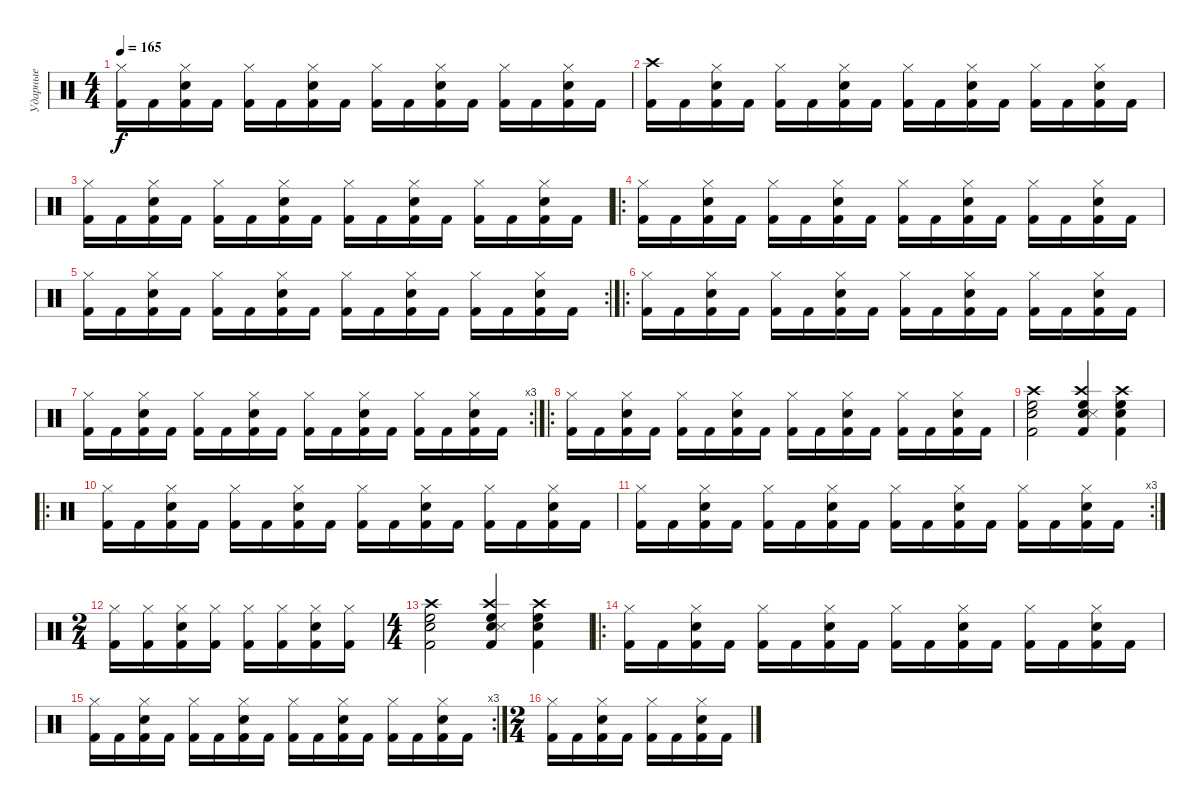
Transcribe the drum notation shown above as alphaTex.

\track ("Ударные" "Ударные") {instrument percussion}
\staff
\articulation defaults
\ts (4 4)
\tempo 165
\clef neutral
\ks c
("Kick (hit) 2" "Hi-Hat (closed)").16{dy f} "Kick (hit) 2".16 ("Kick (hit) 2" "Snare (hit) 2" "Hi-Hat (closed)").16 "Kick (hit) 2".16 ("Kick (hit) 2" "Hi-Hat (closed)").16 "Kick (hit) 2".16 ("Kick (hit) 2" "Snare (hit) 2" "Hi-Hat (closed)").16 "Kick (hit) 2".16 ("Kick (hit) 2" "Hi-Hat (closed)").16 "Kick (hit) 2".16 ("Kick (hit) 2" "Snare (hit) 2" "Hi-Hat (closed)").16 "Kick (hit) 2".16 ("Kick (hit) 2" "Hi-Hat (closed)").16 "Kick (hit) 2".16 ("Kick (hit) 2" "Snare (hit) 2" "Hi-Hat (closed)").16 "Kick (hit) 2".16 |
("Kick (hit) 2" "Crash high (hit)").16 "Kick (hit) 2".16 ("Kick (hit) 2" "Snare (hit) 2" "Hi-Hat (closed)").16 "Kick (hit) 2".16 ("Kick (hit) 2" "Hi-Hat (closed)").16 "Kick (hit) 2".16 ("Kick (hit) 2" "Snare (hit) 2" "Hi-Hat (closed)").16 "Kick (hit) 2".16 ("Kick (hit) 2" "Hi-Hat (closed)").16 "Kick (hit) 2".16 ("Kick (hit) 2" "Snare (hit) 2" "Hi-Hat (closed)").16 "Kick (hit) 2".16 ("Kick (hit) 2" "Hi-Hat (closed)").16 "Kick (hit) 2".16 ("Kick (hit) 2" "Snare (hit) 2" "Hi-Hat (closed)").16 "Kick (hit) 2".16 |
("Kick (hit) 2" "Hi-Hat (closed)").16 "Kick (hit) 2".16 ("Kick (hit) 2" "Snare (hit) 2" "Hi-Hat (closed)").16 "Kick (hit) 2".16 ("Kick (hit) 2" "Hi-Hat (closed)").16 "Kick (hit) 2".16 ("Kick (hit) 2" "Snare (hit) 2" "Hi-Hat (closed)").16 "Kick (hit) 2".16 ("Kick (hit) 2" "Hi-Hat (closed)").16 "Kick (hit) 2".16 ("Kick (hit) 2" "Snare (hit) 2" "Hi-Hat (closed)").16 "Kick (hit) 2".16 ("Kick (hit) 2" "Hi-Hat (closed)").16 "Kick (hit) 2".16 ("Kick (hit) 2" "Snare (hit) 2" "Hi-Hat (closed)").16 "Kick (hit) 2".16 |
\ro
("Kick (hit) 2" "Hi-Hat (closed)").16 "Kick (hit) 2".16 ("Kick (hit) 2" "Snare (hit) 2" "Hi-Hat (closed)").16 "Kick (hit) 2".16 ("Kick (hit) 2" "Hi-Hat (closed)").16 "Kick (hit) 2".16 ("Kick (hit) 2" "Snare (hit) 2" "Hi-Hat (closed)").16 "Kick (hit) 2".16 ("Kick (hit) 2" "Hi-Hat (closed)").16 "Kick (hit) 2".16 ("Kick (hit) 2" "Snare (hit) 2" "Hi-Hat (closed)").16 "Kick (hit) 2".16 ("Kick (hit) 2" "Hi-Hat (closed)").16 "Kick (hit) 2".16 ("Kick (hit) 2" "Snare (hit) 2" "Hi-Hat (closed)").16 "Kick (hit) 2".16 |
\rc 2
("Kick (hit) 2" "Hi-Hat (closed)").16 "Kick (hit) 2".16 ("Kick (hit) 2" "Snare (hit) 2" "Hi-Hat (closed)").16 "Kick (hit) 2".16 ("Kick (hit) 2" "Hi-Hat (closed)").16 "Kick (hit) 2".16 ("Kick (hit) 2" "Snare (hit) 2" "Hi-Hat (closed)").16 "Kick (hit) 2".16 ("Kick (hit) 2" "Hi-Hat (closed)").16 "Kick (hit) 2".16 ("Kick (hit) 2" "Snare (hit) 2" "Hi-Hat (closed)").16 "Kick (hit) 2".16 ("Kick (hit) 2" "Hi-Hat (closed)").16 "Kick (hit) 2".16 ("Kick (hit) 2" "Snare (hit) 2" "Hi-Hat (closed)").16 "Kick (hit) 2".16 |
\ro
("Kick (hit) 2" "Hi-Hat (closed)").16 "Kick (hit) 2".16 ("Kick (hit) 2" "Snare (hit) 2" "Hi-Hat (closed)").16 "Kick (hit) 2".16 ("Kick (hit) 2" "Hi-Hat (closed)").16 "Kick (hit) 2".16 ("Kick (hit) 2" "Snare (hit) 2" "Hi-Hat (closed)").16 "Kick (hit) 2".16 ("Kick (hit) 2" "Hi-Hat (closed)").16 "Kick (hit) 2".16 ("Kick (hit) 2" "Snare (hit) 2" "Hi-Hat (closed)").16 "Kick (hit) 2".16 ("Kick (hit) 2" "Hi-Hat (closed)").16 "Kick (hit) 2".16 ("Kick (hit) 2" "Snare (hit) 2" "Hi-Hat (closed)").16 "Kick (hit) 2".16 |
\rc 3
("Kick (hit) 2" "Hi-Hat (closed)").16 "Kick (hit) 2".16 ("Kick (hit) 2" "Snare (hit) 2" "Hi-Hat (closed)").16 "Kick (hit) 2".16 ("Kick (hit) 2" "Hi-Hat (closed)").16 "Kick (hit) 2".16 ("Kick (hit) 2" "Snare (hit) 2" "Hi-Hat (closed)").16 "Kick (hit) 2".16 ("Kick (hit) 2" "Hi-Hat (closed)").16 "Kick (hit) 2".16 ("Kick (hit) 2" "Snare (hit) 2" "Hi-Hat (closed)").16 "Kick (hit) 2".16 ("Kick (hit) 2" "Hi-Hat (closed)").16 "Kick (hit) 2".16 ("Kick (hit) 2" "Snare (hit) 2" "Hi-Hat (closed)").16 "Kick (hit) 2".16 |
\ro
("Kick (hit) 2" "Hi-Hat (closed)").16 "Kick (hit) 2".16 ("Kick (hit) 2" "Snare (hit) 2" "Hi-Hat (closed)").16 "Kick (hit) 2".16 ("Kick (hit) 2" "Hi-Hat (closed)").16 "Kick (hit) 2".16 ("Kick (hit) 2" "Snare (hit) 2" "Hi-Hat (closed)").16 "Kick (hit) 2".16 ("Kick (hit) 2" "Hi-Hat (closed)").16 "Kick (hit) 2".16 ("Kick (hit) 2" "Snare (hit) 2" "Hi-Hat (closed)").16 "Kick (hit) 2".16 ("Kick (hit) 2" "Hi-Hat (closed)").16 "Kick (hit) 2".16 ("Kick (hit) 2" "Snare (hit) 2" "Hi-Hat (closed)").16 "Kick (hit) 2".16 |
("Crash high (hit)" "High Floor Tom (hit)" "Snare (hit) 2" "Kick (hit) 2").2 ("Kick (hit) 2" "Snare (hit) 2" "Snare (side stick) 3" "High Floor Tom (hit)" "Crash high (hit)").4 ("Crash high (hit)" "High Floor Tom (hit)" "Snare (hit) 2" "Kick (hit) 2").4 |
\ro
("Kick (hit) 2" "Hi-Hat (closed)").16 "Kick (hit) 2".16 ("Kick (hit) 2" "Snare (hit) 2" "Hi-Hat (closed)").16 "Kick (hit) 2".16 ("Kick (hit) 2" "Hi-Hat (closed)").16 "Kick (hit) 2".16 ("Kick (hit) 2" "Snare (hit) 2" "Hi-Hat (closed)").16 "Kick (hit) 2".16 ("Kick (hit) 2" "Hi-Hat (closed)").16 "Kick (hit) 2".16 ("Kick (hit) 2" "Snare (hit) 2" "Hi-Hat (closed)").16 "Kick (hit) 2".16 ("Kick (hit) 2" "Hi-Hat (closed)").16 "Kick (hit) 2".16 ("Kick (hit) 2" "Snare (hit) 2" "Hi-Hat (closed)").16 "Kick (hit) 2".16 |
\rc 3
("Kick (hit) 2" "Hi-Hat (closed)").16 "Kick (hit) 2".16 ("Kick (hit) 2" "Snare (hit) 2" "Hi-Hat (closed)").16 "Kick (hit) 2".16 ("Kick (hit) 2" "Hi-Hat (closed)").16 "Kick (hit) 2".16 ("Kick (hit) 2" "Snare (hit) 2" "Hi-Hat (closed)").16 "Kick (hit) 2".16 ("Kick (hit) 2" "Hi-Hat (closed)").16 "Kick (hit) 2".16 ("Kick (hit) 2" "Snare (hit) 2" "Hi-Hat (closed)").16 "Kick (hit) 2".16 ("Kick (hit) 2" "Hi-Hat (closed)").16 "Kick (hit) 2".16 ("Kick (hit) 2" "Snare (hit) 2" "Hi-Hat (closed)").16 "Kick (hit) 2".16 |
\ts (2 4)
("Kick (hit) 2" "Hi-Hat (closed)").16 ("Kick (hit) 2" "Hi-Hat (closed)").16 ("Kick (hit) 2" "Snare (hit) 2" "Hi-Hat (closed)").16 ("Kick (hit) 2" "Hi-Hat (closed)").16 ("Kick (hit) 2" "Hi-Hat (closed)").16 ("Kick (hit) 2" "Hi-Hat (closed)").16 ("Kick (hit) 2" "Snare (hit) 2" "Hi-Hat (closed)").16 ("Kick (hit) 2" "Hi-Hat (closed)").16 |
\ts (4 4)
("Crash high (hit)" "High Floor Tom (hit)" "Snare (hit) 2" "Kick (hit) 2").2 ("Kick (hit) 2" "Snare (hit) 2" "Snare (side stick) 3" "High Floor Tom (hit)" "Crash high (hit)").4 ("Crash high (hit)" "High Floor Tom (hit)" "Snare (hit) 2" "Kick (hit) 2").4 |
\ro
("Kick (hit) 2" "Hi-Hat (closed)").16 "Kick (hit) 2".16 ("Kick (hit) 2" "Snare (hit) 2" "Hi-Hat (closed)").16 "Kick (hit) 2".16 ("Kick (hit) 2" "Hi-Hat (closed)").16 "Kick (hit) 2".16 ("Kick (hit) 2" "Snare (hit) 2" "Hi-Hat (closed)").16 "Kick (hit) 2".16 ("Kick (hit) 2" "Hi-Hat (closed)").16 "Kick (hit) 2".16 ("Kick (hit) 2" "Snare (hit) 2" "Hi-Hat (closed)").16 "Kick (hit) 2".16 ("Kick (hit) 2" "Hi-Hat (closed)").16 "Kick (hit) 2".16 ("Kick (hit) 2" "Snare (hit) 2" "Hi-Hat (closed)").16 "Kick (hit) 2".16 |
\rc 3
("Kick (hit) 2" "Hi-Hat (closed)").16 "Kick (hit) 2".16 ("Kick (hit) 2" "Snare (hit) 2" "Hi-Hat (closed)").16 "Kick (hit) 2".16 ("Kick (hit) 2" "Hi-Hat (closed)").16 "Kick (hit) 2".16 ("Kick (hit) 2" "Snare (hit) 2" "Hi-Hat (closed)").16 "Kick (hit) 2".16 ("Kick (hit) 2" "Hi-Hat (closed)").16 "Kick (hit) 2".16 ("Kick (hit) 2" "Snare (hit) 2" "Hi-Hat (closed)").16 "Kick (hit) 2".16 ("Kick (hit) 2" "Hi-Hat (closed)").16 "Kick (hit) 2".16 ("Kick (hit) 2" "Snare (hit) 2" "Hi-Hat (closed)").16 "Kick (hit) 2".16 |
\ts (2 4)
("Kick (hit) 2" "Hi-Hat (closed)").16 "Kick (hit) 2".16 ("Kick (hit) 2" "Snare (hit) 2" "Hi-Hat (closed)").16 "Kick (hit) 2".16 ("Kick (hit) 2" "Hi-Hat (closed)").16 "Kick (hit) 2".16 ("Kick (hit) 2" "Snare (hit) 2" "Hi-Hat (closed)").16 "Kick (hit) 2".16
